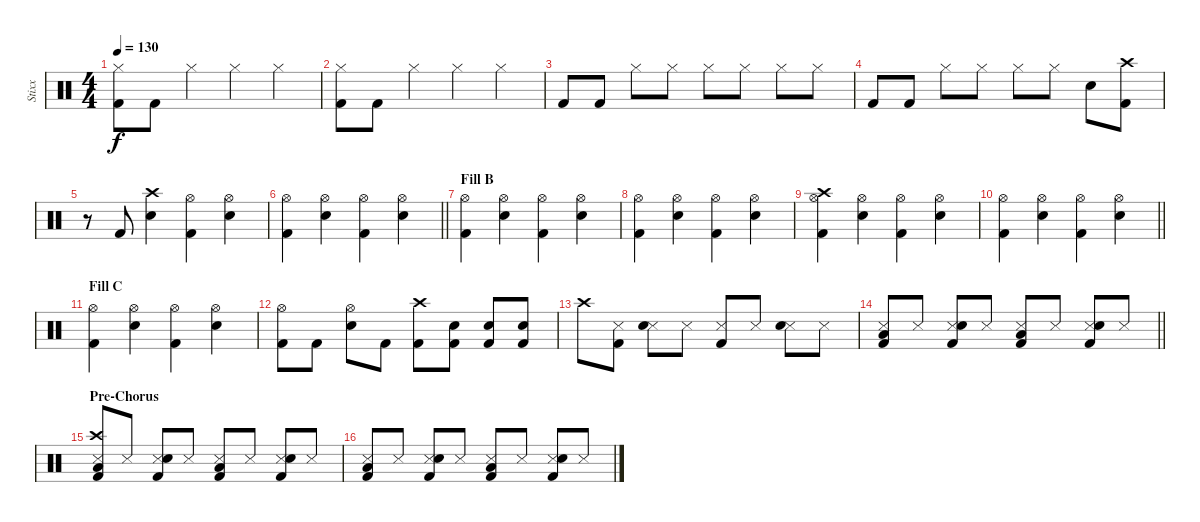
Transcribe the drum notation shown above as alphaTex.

\track ("Stixx" "Stixx") {instrument percussion}
\staff {score}
\articulation defaults
\ts (4 4)
\tempo 130
\clef neutral
\ks c
("Hi-Hat (closed)" "Kick (hit) 2").8{dy f} "Kick (hit) 2".8 "Hi-Hat (closed)".4 "Hi-Hat (closed)".4 "Hi-Hat (closed)".4 |
("Hi-Hat (closed)" "Kick (hit) 2").8 "Kick (hit) 2".8 "Hi-Hat (closed)".4 "Hi-Hat (closed)".4 "Hi-Hat (closed)".4 |
"Kick (hit) 2".8 "Kick (hit) 2".8 "Hi-Hat (closed)".8 "Hi-Hat (closed)".8 "Hi-Hat (closed)".8 "Hi-Hat (closed)".8 "Hi-Hat (closed)".8 "Hi-Hat (closed)".8 |
"Kick (hit) 2".8 "Kick (hit) 2".8 "Hi-Hat (closed)".8 "Hi-Hat (closed)".8 "Hi-Hat (closed)".8 "Hi-Hat (closed)".8 "Snare (hit) 2".8 ("Crash high (hit)" "Kick (hit) 2").8 |
r.8 "Kick (hit) 2".8 ("Crash high (hit)" "Snare (hit) 2").4 ("Hi-Hat (open)" "Kick (hit) 2").4 ("Hi-Hat (open)" "Snare (hit) 2").4 |
\barLineRight lightlight
("Hi-Hat (open)" "Kick (hit) 2").4 ("Hi-Hat (open)" "Snare (hit) 2").4 ("Hi-Hat (open)" "Kick (hit) 2").4 ("Hi-Hat (open)" "Snare (hit) 2").4 |
\section ("" "Fill B")
("Hi-Hat (open)" "Kick (hit) 2").4 ("Hi-Hat (open)" "Snare (hit) 2").4 ("Hi-Hat (open)" "Kick (hit) 2").4 ("Hi-Hat (open)" "Snare (hit) 2").4 |
("Hi-Hat (open)" "Kick (hit) 2").4 ("Hi-Hat (open)" "Snare (hit) 2").4 ("Hi-Hat (open)" "Kick (hit) 2").4 ("Hi-Hat (open)" "Snare (hit) 2").4 |
("Crash high (hit)" "Hi-Hat (open)" "Kick (hit) 2").4 ("Hi-Hat (open)" "Snare (hit) 2").4 ("Hi-Hat (open)" "Kick (hit) 2").4 ("Hi-Hat (open)" "Snare (hit) 2").4 |
\barLineRight lightlight
("Hi-Hat (open)" "Kick (hit) 2").4 ("Hi-Hat (open)" "Snare (hit) 2").4 ("Hi-Hat (open)" "Kick (hit) 2").4 ("Hi-Hat (open)" "Snare (hit) 2").4 |
\section ("" "Fill C")
("Hi-Hat (open)" "Kick (hit) 2").4 ("Hi-Hat (open)" "Snare (hit) 2").4 ("Hi-Hat (open)" "Kick (hit) 2").4 ("Hi-Hat (open)" "Snare (hit) 2").4 |
("Hi-Hat (open)" "Kick (hit) 2").8 "Kick (hit) 2".8 ("Hi-Hat (open)" "Snare (hit) 2").8 "Kick (hit) 2".8 ("Crash high (hit)" "Kick (hit) 2").8 ("Snare (hit) 2" "Kick (hit) 2").8 ("Snare (hit) 2" "Kick (hit) 2").8 ("Snare (hit) 2" "Kick (hit) 2").8 |
"Crash high (hit)".8 ("Snare (side stick) 3" "Kick (hit) 2").8 ("Snare (side stick) 3" "Snare (hit) 2").8 "Snare (side stick) 3".8 ("Snare (side stick) 3" "Kick (hit) 2").8 "Snare (side stick) 3".8 ("Snare (side stick) 3" "Snare (hit) 2").8 "Snare (side stick) 3".8 |
\barLineRight lightlight
("Snare (side stick) 3" "Low Floor Tom (hit)" "Kick (hit) 2").8 "Snare (side stick) 3".8 ("Snare (side stick) 3" "Snare (hit) 2" "Kick (hit) 2").8 "Snare (side stick) 3".8 ("Snare (side stick) 3" "Low Floor Tom (hit)" "Kick (hit) 2").8 "Snare (side stick) 3".8 ("Snare (side stick) 3" "Snare (hit) 2" "Kick (hit) 2").8 "Snare (side stick) 3".8 |
\section ("" "Pre-Chorus")
("Crash high (hit)" "Snare (side stick) 3" "Low Floor Tom (hit)" "Kick (hit) 2").8 "Snare (side stick) 3".8 ("Snare (side stick) 3" "Snare (hit) 2" "Kick (hit) 2").8 "Snare (side stick) 3".8 ("Snare (side stick) 3" "Low Floor Tom (hit)" "Kick (hit) 2").8 "Snare (side stick) 3".8 ("Snare (side stick) 3" "Snare (hit) 2" "Kick (hit) 2").8 "Snare (side stick) 3".8 |
("Snare (side stick) 3" "Low Floor Tom (hit)" "Kick (hit) 2").8 "Snare (side stick) 3".8 ("Snare (side stick) 3" "Snare (hit) 2" "Kick (hit) 2").8 "Snare (side stick) 3".8 ("Snare (side stick) 3" "Low Floor Tom (hit)" "Kick (hit) 2").8 "Snare (side stick) 3".8 ("Snare (side stick) 3" "Snare (hit) 2" "Kick (hit) 2").8 "Snare (side stick) 3".8
